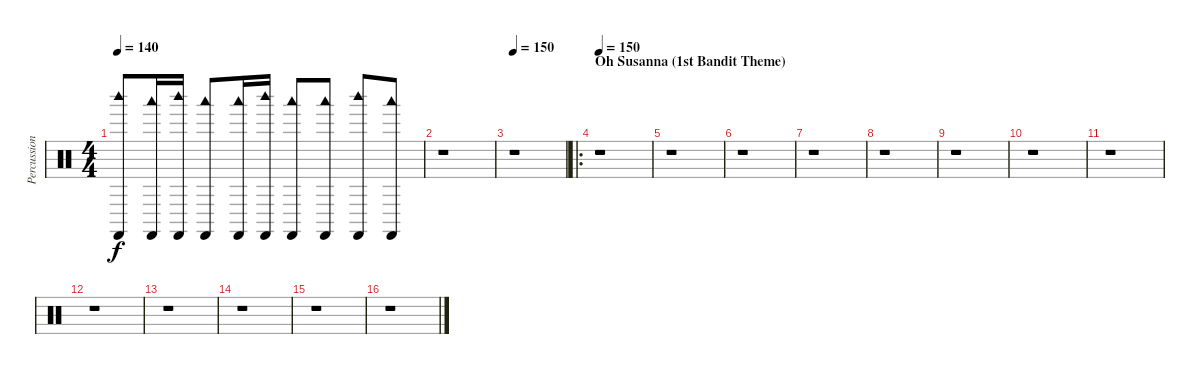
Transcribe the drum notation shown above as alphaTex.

\track ("Percussion" "Percussion") {instrument percussion}
\staff {score}
\articulation defaults
\ts (4 4)
\tempo 140
\clef neutral
\ks c
("Woodblock high (hit)" "Castanets (hit)").8{dy f} ("Woodblock low (hit)" "Castanets (hit)").16 ("Woodblock high (hit)" "Castanets (hit)").16 ("Woodblock low (hit)" "Castanets (hit)").8 ("Woodblock low (hit)" "Castanets (hit)").16 ("Woodblock high (hit)" "Castanets (hit)").16 ("Woodblock low (hit)" "Castanets (hit)").8 ("Woodblock low (hit)" "Castanets (hit)").8 ("Woodblock high (hit)" "Castanets (hit)").8 ("Woodblock low (hit)" "Castanets (hit)").8 |
r.1 |
\tempo 150
r.1 |
\ro
\section ("" "Oh Susanna (1st Bandit Theme)")
\tempo 150
r.1 |
r.1 |
r.1 |
r.1 |
r.1 |
r.1 |
r.1 |
r.1 |
r.1 |
r.1 |
r.1 |
r.1 |
r.1
